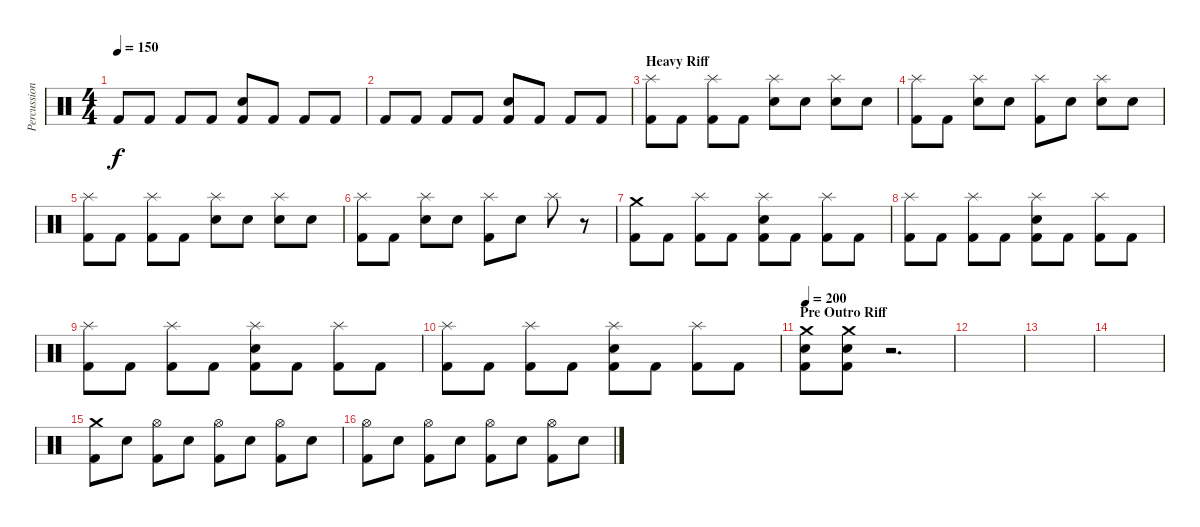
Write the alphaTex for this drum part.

\track ("Percussion" "Percussion") {instrument percussion}
\staff {score}
\articulation defaults
\ts (4 4)
\tempo 150
\clef neutral
\ks c "Kick (hit) 2".8{dy f} "Kick (hit) 2".8 "Kick (hit) 2".8 "Kick (hit) 2".8
("Electric Snare (hit)" "Kick (hit) 2").8 "Kick (hit) 2".8 "Kick (hit) 2".8 "Kick (hit) 2".8 |
"Kick (hit) 2".8 "Kick (hit) 2".8 "Kick (hit) 2".8 "Kick (hit) 2".8 ("Electric Snare (hit)" "Kick (hit) 2").8 "Kick (hit) 2".8 "Kick (hit) 2".8 "Kick (hit) 2".8 |
\section ("" "Heavy Riff")
("Splash (hit)" "Kick (hit) 2").8 "Kick (hit) 2".8 ("Splash (hit)" "Kick (hit) 2").8 "Kick (hit) 2".8 ("Splash (hit)" "Electric Snare (hit)").8 "Electric Snare (hit)".8 ("Splash (hit)" "Electric Snare (hit)").8 "Electric Snare (hit)".8 |
("Splash (hit)" "Kick (hit) 2").8 "Kick (hit) 2".8 ("Splash (hit)" "Electric Snare (hit)").8 "Electric Snare (hit)".8 ("Splash (hit)" "Kick (hit) 2").8 "Electric Snare (hit)".8 ("Splash (hit)" "Electric Snare (hit)").8 "Electric Snare (hit)".8 |
("Splash (hit)" "Kick (hit) 2").8 "Kick (hit) 2".8 ("Splash (hit)" "Kick (hit) 2").8 "Kick (hit) 2".8 ("Splash (hit)" "Electric Snare (hit)").8 "Electric Snare (hit)".8 ("Splash (hit)" "Electric Snare (hit)").8 "Electric Snare (hit)".8 |
("Splash (hit)" "Kick (hit) 2").8 "Kick (hit) 2".8 ("Splash (hit)" "Electric Snare (hit)").8 "Electric Snare (hit)".8 ("Splash (hit)" "Kick (hit) 2").8 "Electric Snare (hit)".8 "Splash (hit)".8 r.8 |
("Crash medium (hit)" "Kick (hit) 2").8 "Kick (hit) 2".8 ("Splash (hit)" "Kick (hit) 2").8 "Kick (hit) 2".8 ("Splash (hit)" "Electric Snare (hit)" "Kick (hit) 2").8 "Kick (hit) 2".8 ("Splash (hit)" "Kick (hit) 2").8 "Kick (hit) 2".8 |
("Splash (hit)" "Kick (hit) 2").8 "Kick (hit) 2".8 ("Splash (hit)" "Kick (hit) 2").8 "Kick (hit) 2".8 ("Splash (hit)" "Electric Snare (hit)" "Kick (hit) 2").8 "Kick (hit) 2".8 ("Splash (hit)" "Kick (hit) 2").8 "Kick (hit) 2".8 |
("Splash (hit)" "Kick (hit) 2").8 "Kick (hit) 2".8 ("Splash (hit)" "Kick (hit) 2").8 "Kick (hit) 2".8 ("Splash (hit)" "Electric Snare (hit)" "Kick (hit) 2").8 "Kick (hit) 2".8 ("Splash (hit)" "Kick (hit) 2").8 "Kick (hit) 2".8 |
("Splash (hit)" "Kick (hit) 2").8 "Kick (hit) 2".8 ("Splash (hit)" "Kick (hit) 2").8 "Kick (hit) 2".8 ("Splash (hit)" "Electric Snare (hit)" "Kick (hit) 2").8 "Kick (hit) 2".8 ("Splash (hit)" "Kick (hit) 2").8 "Kick (hit) 2".8 |
\section ("" "Pre Outro Riff")
\tempo 200
("Crash medium (hit)" "Electric Snare (hit)" "Kick (hit) 2").8 ("Crash medium (hit)" "Electric Snare (hit)" "Kick (hit) 2").8 r.2{d} |
|
|
|
("Crash medium (hit)" "Kick (hit) 2").8 "Electric Snare (hit)".8 ("Hi-Hat (open)" "Kick (hit) 2").8 "Electric Snare (hit)".8 ("Hi-Hat (open)" "Kick (hit) 2").8 "Electric Snare (hit)".8 ("Hi-Hat (open)" "Kick (hit) 2").8 "Electric Snare (hit)".8 |
("Hi-Hat (open)" "Kick (hit) 2").8 "Electric Snare (hit)".8 ("Hi-Hat (open)" "Kick (hit) 2").8 "Electric Snare (hit)".8 ("Hi-Hat (open)" "Kick (hit) 2").8 "Electric Snare (hit)".8 ("Hi-Hat (open)" "Kick (hit) 2").8 "Electric Snare (hit)".8
